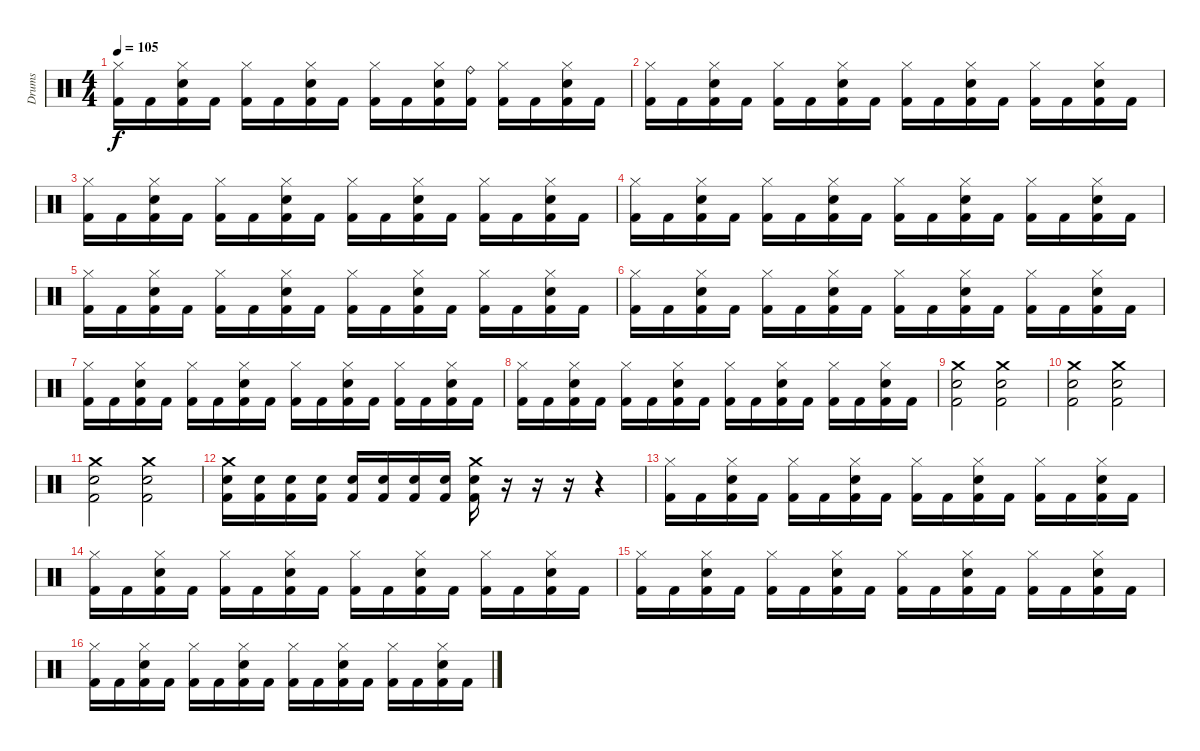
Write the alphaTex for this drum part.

\track ("Drums" "Drums") {instrument percussion}
\staff {score}
\articulation defaults
\ts (4 4)
\tempo 105
\clef neutral
\ks c
("Kick (hit) 2" "Hi-Hat (closed)").16{dy f} "Kick (hit) 2".16 ("Kick (hit) 2" "Snare (hit) 2" "Hi-Hat (closed)").16 "Kick (hit) 2".16 ("Kick (hit) 2" "Hi-Hat (closed)").16 "Kick (hit) 2".16 ("Kick (hit) 2" "Snare (hit) 2" "Hi-Hat (closed)").16 "Kick (hit) 2".16 ("Kick (hit) 2" "Hi-Hat (closed)").16 "Kick (hit) 2".16 ("Kick (hit) 2" "Snare (hit) 2" "Hi-Hat (closed)").16 ("Kick (hit) 2" "Ride (bell)").16 ("Kick (hit) 2" "Hi-Hat (closed)").16 "Kick (hit) 2".16 ("Kick (hit) 2" "Snare (hit) 2" "Hi-Hat (closed)").16 "Kick (hit) 2".16 |
("Kick (hit) 2" "Hi-Hat (closed)").16 "Kick (hit) 2".16 ("Kick (hit) 2" "Snare (hit) 2" "Hi-Hat (closed)").16 "Kick (hit) 2".16 ("Kick (hit) 2" "Hi-Hat (closed)").16 "Kick (hit) 2".16 ("Kick (hit) 2" "Snare (hit) 2" "Hi-Hat (closed)").16 "Kick (hit) 2".16 ("Kick (hit) 2" "Hi-Hat (closed)").16 "Kick (hit) 2".16 ("Kick (hit) 2" "Snare (hit) 2" "Hi-Hat (closed)").16 "Kick (hit) 2".16 ("Kick (hit) 2" "Hi-Hat (closed)").16 "Kick (hit) 2".16 ("Kick (hit) 2" "Snare (hit) 2" "Hi-Hat (closed)").16 "Kick (hit) 2".16 |
("Kick (hit) 2" "Hi-Hat (closed)").16 "Kick (hit) 2".16 ("Kick (hit) 2" "Snare (hit) 2" "Hi-Hat (closed)").16 "Kick (hit) 2".16 ("Kick (hit) 2" "Hi-Hat (closed)").16 "Kick (hit) 2".16 ("Kick (hit) 2" "Snare (hit) 2" "Hi-Hat (closed)").16 "Kick (hit) 2".16 ("Kick (hit) 2" "Hi-Hat (closed)").16 "Kick (hit) 2".16 ("Kick (hit) 2" "Snare (hit) 2" "Hi-Hat (closed)").16 "Kick (hit) 2".16 ("Kick (hit) 2" "Hi-Hat (closed)").16 "Kick (hit) 2".16 ("Kick (hit) 2" "Snare (hit) 2" "Hi-Hat (closed)").16 "Kick (hit) 2".16 |
("Kick (hit) 2" "Hi-Hat (closed)").16 "Kick (hit) 2".16 ("Kick (hit) 2" "Snare (hit) 2" "Hi-Hat (closed)").16 "Kick (hit) 2".16 ("Kick (hit) 2" "Hi-Hat (closed)").16 "Kick (hit) 2".16 ("Kick (hit) 2" "Snare (hit) 2" "Hi-Hat (closed)").16 "Kick (hit) 2".16 ("Kick (hit) 2" "Hi-Hat (closed)").16 "Kick (hit) 2".16 ("Kick (hit) 2" "Snare (hit) 2" "Hi-Hat (closed)").16 "Kick (hit) 2".16 ("Kick (hit) 2" "Hi-Hat (closed)").16 "Kick (hit) 2".16 ("Kick (hit) 2" "Snare (hit) 2" "Hi-Hat (closed)").16 "Kick (hit) 2".16 |
("Kick (hit) 2" "Hi-Hat (closed)").16 "Kick (hit) 2".16 ("Kick (hit) 2" "Snare (hit) 2" "Hi-Hat (closed)").16 "Kick (hit) 2".16 ("Kick (hit) 2" "Hi-Hat (closed)").16 "Kick (hit) 2".16 ("Kick (hit) 2" "Snare (hit) 2" "Hi-Hat (closed)").16 "Kick (hit) 2".16 ("Kick (hit) 2" "Hi-Hat (closed)").16 "Kick (hit) 2".16 ("Kick (hit) 2" "Snare (hit) 2" "Hi-Hat (closed)").16 "Kick (hit) 2".16 ("Kick (hit) 2" "Hi-Hat (closed)").16 "Kick (hit) 2".16 ("Kick (hit) 2" "Snare (hit) 2" "Hi-Hat (closed)").16 "Kick (hit) 2".16 |
("Kick (hit) 2" "Hi-Hat (closed)").16 "Kick (hit) 2".16 ("Kick (hit) 2" "Snare (hit) 2" "Hi-Hat (closed)").16 "Kick (hit) 2".16 ("Kick (hit) 2" "Hi-Hat (closed)").16 "Kick (hit) 2".16 ("Kick (hit) 2" "Snare (hit) 2" "Hi-Hat (closed)").16 "Kick (hit) 2".16 ("Kick (hit) 2" "Hi-Hat (closed)").16 "Kick (hit) 2".16 ("Kick (hit) 2" "Snare (hit) 2" "Hi-Hat (closed)").16 "Kick (hit) 2".16 ("Kick (hit) 2" "Hi-Hat (closed)").16 "Kick (hit) 2".16 ("Kick (hit) 2" "Snare (hit) 2" "Hi-Hat (closed)").16 "Kick (hit) 2".16 |
("Kick (hit) 2" "Hi-Hat (closed)").16 "Kick (hit) 2".16 ("Kick (hit) 2" "Snare (hit) 2" "Hi-Hat (closed)").16 "Kick (hit) 2".16 ("Kick (hit) 2" "Hi-Hat (closed)").16 "Kick (hit) 2".16 ("Kick (hit) 2" "Snare (hit) 2" "Hi-Hat (closed)").16 "Kick (hit) 2".16 ("Kick (hit) 2" "Hi-Hat (closed)").16 "Kick (hit) 2".16 ("Kick (hit) 2" "Snare (hit) 2" "Hi-Hat (closed)").16 "Kick (hit) 2".16 ("Kick (hit) 2" "Hi-Hat (closed)").16 "Kick (hit) 2".16 ("Kick (hit) 2" "Snare (hit) 2" "Hi-Hat (closed)").16 "Kick (hit) 2".16 |
("Kick (hit) 2" "Hi-Hat (closed)").16 "Kick (hit) 2".16 ("Kick (hit) 2" "Snare (hit) 2" "Hi-Hat (closed)").16 "Kick (hit) 2".16 ("Kick (hit) 2" "Hi-Hat (closed)").16 "Kick (hit) 2".16 ("Kick (hit) 2" "Snare (hit) 2" "Hi-Hat (closed)").16 "Kick (hit) 2".16 ("Kick (hit) 2" "Hi-Hat (closed)").16 "Kick (hit) 2".16 ("Kick (hit) 2" "Snare (hit) 2" "Hi-Hat (closed)").16 "Kick (hit) 2".16 ("Kick (hit) 2" "Hi-Hat (closed)").16 "Kick (hit) 2".16 ("Kick (hit) 2" "Snare (hit) 2" "Hi-Hat (closed)").16 "Kick (hit) 2".16 |
("Kick (hit) 2" "Snare (hit) 2" "Crash medium (hit)").2 ("Kick (hit) 2" "Snare (hit) 2" "Crash medium (hit)").2 |
("Kick (hit) 2" "Snare (hit) 2" "Crash medium (hit)").2 ("Kick (hit) 2" "Snare (hit) 2" "Crash medium (hit)").2 |
("Kick (hit) 2" "Snare (hit) 2" "Crash medium (hit)").2 ("Kick (hit) 2" "Snare (hit) 2" "Crash medium (hit)").2 |
("Kick (hit) 2" "Snare (hit) 2" "Crash medium (hit)").16 ("Kick (hit) 2" "Snare (hit) 2").16{volume 3} ("Kick (hit) 2" "Snare (hit) 2").16{volume 15} ("Kick (hit) 2" "Snare (hit) 2").16 ("Kick (hit) 2" "Snare (hit) 2").16 ("Kick (hit) 2" "Snare (hit) 2").16 ("Kick (hit) 2" "Snare (hit) 2").16 ("Kick (hit) 2" "Snare (hit) 2").16 ("Kick (hit) 2" "Snare (hit) 2" "Crash medium (hit)").16 r.16 r.16 r.16 r.4 |
("Kick (hit) 2" "Hi-Hat (closed)").16 "Kick (hit) 2".16 ("Kick (hit) 2" "Snare (hit) 2" "Hi-Hat (closed)").16 "Kick (hit) 2".16 ("Kick (hit) 2" "Hi-Hat (closed)").16 "Kick (hit) 2".16 ("Kick (hit) 2" "Snare (hit) 2" "Hi-Hat (closed)").16 "Kick (hit) 2".16 ("Kick (hit) 2" "Hi-Hat (closed)").16 "Kick (hit) 2".16 ("Kick (hit) 2" "Snare (hit) 2" "Hi-Hat (closed)").16 "Kick (hit) 2".16 ("Kick (hit) 2" "Hi-Hat (closed)").16 "Kick (hit) 2".16 ("Kick (hit) 2" "Snare (hit) 2" "Hi-Hat (closed)").16 "Kick (hit) 2".16 |
("Kick (hit) 2" "Hi-Hat (closed)").16 "Kick (hit) 2".16 ("Kick (hit) 2" "Snare (hit) 2" "Hi-Hat (closed)").16 "Kick (hit) 2".16 ("Kick (hit) 2" "Hi-Hat (closed)").16 "Kick (hit) 2".16 ("Kick (hit) 2" "Snare (hit) 2" "Hi-Hat (closed)").16 "Kick (hit) 2".16 ("Kick (hit) 2" "Hi-Hat (closed)").16 "Kick (hit) 2".16 ("Kick (hit) 2" "Snare (hit) 2" "Hi-Hat (closed)").16 "Kick (hit) 2".16 ("Kick (hit) 2" "Hi-Hat (closed)").16 "Kick (hit) 2".16 ("Kick (hit) 2" "Snare (hit) 2" "Hi-Hat (closed)").16 "Kick (hit) 2".16 |
("Kick (hit) 2" "Hi-Hat (closed)").16 "Kick (hit) 2".16 ("Kick (hit) 2" "Snare (hit) 2" "Hi-Hat (closed)").16 "Kick (hit) 2".16 ("Kick (hit) 2" "Hi-Hat (closed)").16 "Kick (hit) 2".16 ("Kick (hit) 2" "Snare (hit) 2" "Hi-Hat (closed)").16 "Kick (hit) 2".16 ("Kick (hit) 2" "Hi-Hat (closed)").16 "Kick (hit) 2".16 ("Kick (hit) 2" "Snare (hit) 2" "Hi-Hat (closed)").16 "Kick (hit) 2".16 ("Kick (hit) 2" "Hi-Hat (closed)").16 "Kick (hit) 2".16 ("Kick (hit) 2" "Snare (hit) 2" "Hi-Hat (closed)").16 "Kick (hit) 2".16 |
("Kick (hit) 2" "Hi-Hat (closed)").16 "Kick (hit) 2".16 ("Kick (hit) 2" "Snare (hit) 2" "Hi-Hat (closed)").16 "Kick (hit) 2".16 ("Kick (hit) 2" "Hi-Hat (closed)").16 "Kick (hit) 2".16 ("Kick (hit) 2" "Snare (hit) 2" "Hi-Hat (closed)").16 "Kick (hit) 2".16 ("Kick (hit) 2" "Hi-Hat (closed)").16 "Kick (hit) 2".16 ("Kick (hit) 2" "Snare (hit) 2" "Hi-Hat (closed)").16 "Kick (hit) 2".16 ("Kick (hit) 2" "Hi-Hat (closed)").16 "Kick (hit) 2".16 ("Kick (hit) 2" "Snare (hit) 2" "Hi-Hat (closed)").16 "Kick (hit) 2".16
